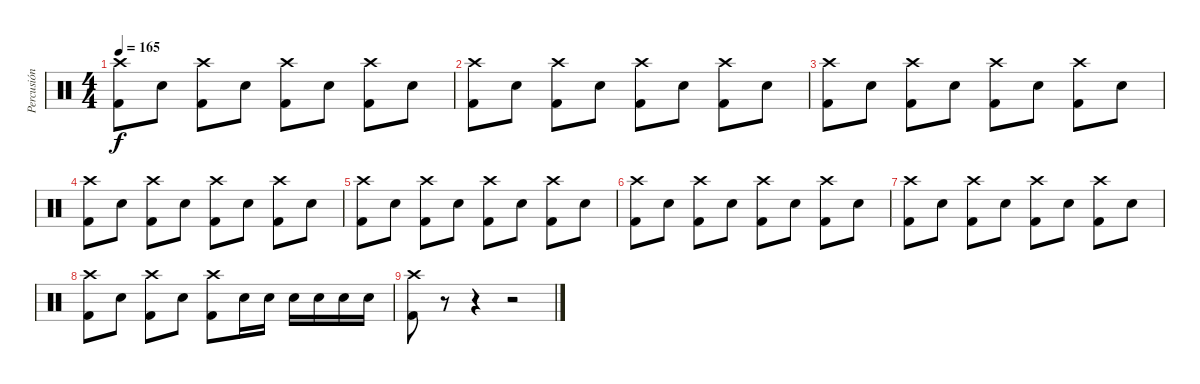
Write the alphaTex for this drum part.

\track ("Percusión" "Percusión") {instrument percussion}
\staff {score}
\articulation defaults
\ts (4 4)
\tempo 165
\clef neutral
\ks c
("Crash high (hit)" "Kick (hit) 2").8{dy f} "Snare (hit) 2".8 ("Crash high (hit)" "Kick (hit) 2").8 "Snare (hit) 2".8 ("Crash high (hit)" "Kick (hit) 2").8 "Snare (hit) 2".8 ("Crash high (hit)" "Kick (hit) 2").8 "Snare (hit) 2".8 |
("Crash high (hit)" "Kick (hit) 2").8 "Snare (hit) 2".8 ("Crash high (hit)" "Kick (hit) 2").8 "Snare (hit) 2".8 ("Crash high (hit)" "Kick (hit) 2").8 "Snare (hit) 2".8 ("Crash high (hit)" "Kick (hit) 2").8 "Snare (hit) 2".8 |
("Crash high (hit)" "Kick (hit) 2").8 "Snare (hit) 2".8 ("Crash high (hit)" "Kick (hit) 2").8 "Snare (hit) 2".8 ("Crash high (hit)" "Kick (hit) 2").8 "Snare (hit) 2".8 ("Crash high (hit)" "Kick (hit) 2").8 "Snare (hit) 2".8 |
("Crash high (hit)" "Kick (hit) 2").8 "Snare (hit) 2".8 ("Crash high (hit)" "Kick (hit) 2").8 "Snare (hit) 2".8 ("Crash high (hit)" "Kick (hit) 2").8 "Snare (hit) 2".8 ("Crash high (hit)" "Kick (hit) 2").8 "Snare (hit) 2".8 |
("Crash high (hit)" "Kick (hit) 2").8 "Snare (hit) 2".8 ("Crash high (hit)" "Kick (hit) 2").8 "Snare (hit) 2".8 ("Crash high (hit)" "Kick (hit) 2").8 "Snare (hit) 2".8 ("Crash high (hit)" "Kick (hit) 2").8 "Snare (hit) 2".8 |
("Crash high (hit)" "Kick (hit) 2").8 "Snare (hit) 2".8 ("Crash high (hit)" "Kick (hit) 2").8 "Snare (hit) 2".8 ("Crash high (hit)" "Kick (hit) 2").8 "Snare (hit) 2".8 ("Crash high (hit)" "Kick (hit) 2").8 "Snare (hit) 2".8 |
("Crash high (hit)" "Kick (hit) 2").8 "Snare (hit) 2".8 ("Crash high (hit)" "Kick (hit) 2").8 "Snare (hit) 2".8 ("Crash high (hit)" "Kick (hit) 2").8 "Snare (hit) 2".8 ("Crash high (hit)" "Kick (hit) 2").8 "Snare (hit) 2".8 |
("Crash high (hit)" "Kick (hit) 2").8 "Snare (hit) 2".8 ("Crash high (hit)" "Kick (hit) 2").8 "Snare (hit) 2".8 ("Crash high (hit)" "Kick (hit) 2").8 "Snare (hit) 2".16 "Snare (hit) 2".16 "Snare (hit) 2".16 "Snare (hit) 2".16 "Snare (hit) 2".16 "Snare (hit) 2".16 |
("Kick (hit) 2" "Crash high (hit)").8 r.8{volume 0} r.4 r.2
